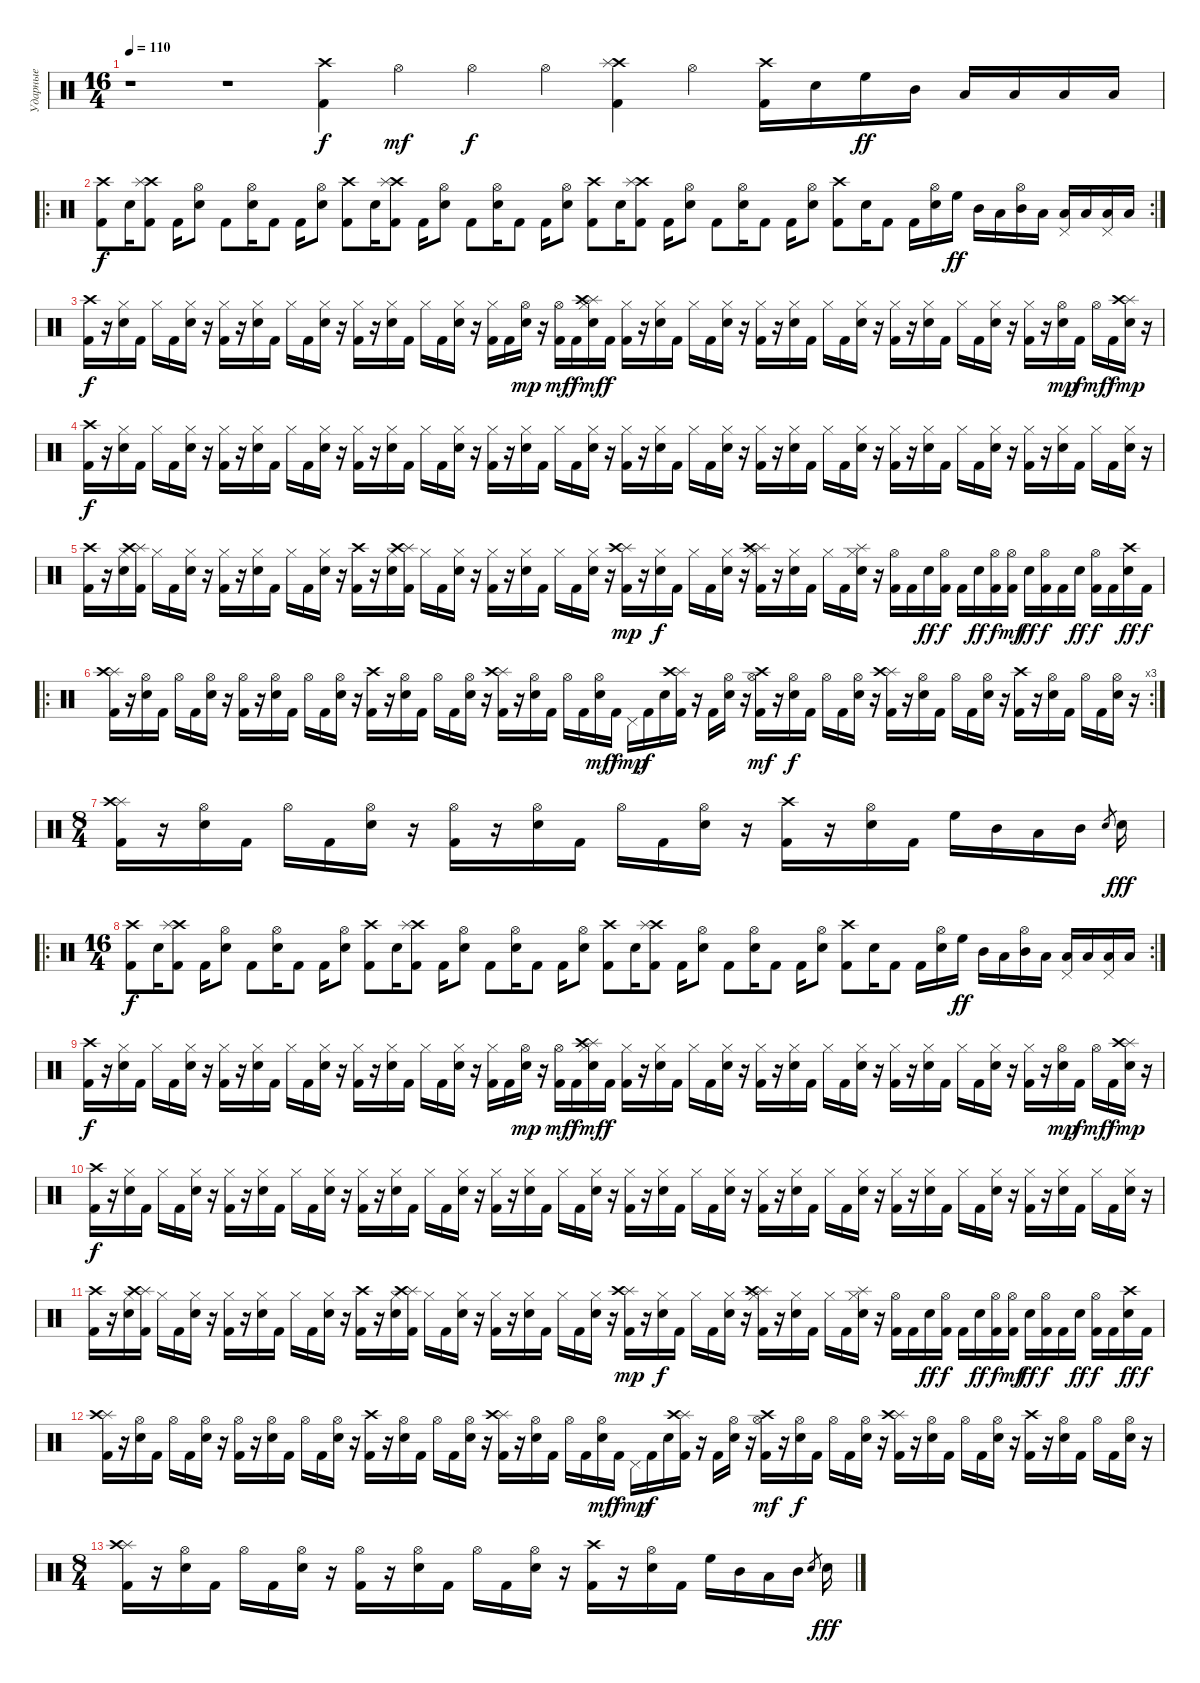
\track ("Ударные" "Ударные") {instrument percussion}
\staff {score}
\articulation defaults
\ts (16 4)
\tempo 110
\clef neutral
\ks c
r.1{dy f} r.1 ("Crash high (hit)" "Kick (hit) 2").4 "Hi-Hat (open)".4{dy mf} "Hi-Hat (open)".4{dy f} "Hi-Hat (open)".4 ("Crash high (hit)" "Splash (hit)" "Kick (hit) 2").4 "Hi-Hat (open)".4 ("Crash high (hit)" "Kick (hit) 2").16 "Electric Snare (hit)".16 "High Floor Tom (hit)".16{dy ff} "Mid Tom (hit)".16 "Low Tom (hit)".16 "Low Floor Tom (hit)".16 "Low Tom (hit)".16 "Low Floor Tom (hit)".16 |
\ro
\rc 2
("Crash high (hit)" "Kick (hit) 2").8{dy f} "Snare (hit) 2".16 ("Crash high (hit)" "Splash (hit)" "Kick (hit) 2").8 "Kick (hit) 2".16 ("Hi-Hat (open)" "Snare (hit) 2").8 "Kick (hit) 2".8 ("Hi-Hat (open)" "Snare (hit) 2").16 "Kick (hit) 2".8 "Kick (hit) 2".16 ("Hi-Hat (open)" "Snare (hit) 2").8 ("Crash high (hit)" "Kick (hit) 2").8 "Snare (hit) 2".16 ("Crash high (hit)" "Splash (hit)" "Kick (hit) 2").8 "Kick (hit) 2".16 ("Hi-Hat (open)" "Snare (hit) 2").8 "Kick (hit) 2".8 ("Hi-Hat (open)" "Snare (hit) 2").16 "Kick (hit) 2".8 "Kick (hit) 2".16 ("Hi-Hat (open)" "Snare (hit) 2").8 ("Crash high (hit)" "Kick (hit) 2").8 "Snare (hit) 2".16 ("Crash high (hit)" "Splash (hit)" "Kick (hit) 2").8 "Kick (hit) 2".16 ("Hi-Hat (open)" "Snare (hit) 2").8 "Kick (hit) 2".8 ("Hi-Hat (open)" "Snare (hit) 2").16 "Kick (hit) 2".8 "Kick (hit) 2".16 ("Hi-Hat (open)" "Snare (hit) 2").8 ("Crash high (hit)" "Kick (hit) 2").8 "Snare (hit) 2".16 "Kick (hit) 2".8 "Kick (hit) 2".16 ("Hi-Hat (open)" "Snare (hit) 2").16 "High Floor Tom (hit)".16{dy ff} "Mid Tom (hit)".16 "Low Tom (hit)".16 ("Hi-Hat (open)" "Mid Tom (hit)").16 "Low Floor Tom (hit)".16 ("Pedal Hi-Hat (hit)" "Low Tom (hit)").16 "Low Floor Tom (hit)".16 ("Pedal Hi-Hat (hit)" "Low Tom (hit)").16 "Low Floor Tom (hit)".16 |
("Crash high (hit)" "Kick (hit) 2").16{dy f} r.16 ("Hi-Hat (closed)" "Snare (hit) 2").16 "Kick (hit) 2".16 "Hi-Hat (closed)".16 "Kick (hit) 2".16 ("Hi-Hat (closed)" "Snare (hit) 2").16 r.16 ("Hi-Hat (closed)" "Kick (hit) 2").16 r.16 ("Hi-Hat (closed)" "Snare (hit) 2").16 "Kick (hit) 2".16 "Hi-Hat (closed)".16 "Kick (hit) 2".16 ("Hi-Hat (closed)" "Snare (hit) 2").16 r.16 ("Hi-Hat (closed)" "Kick (hit) 2").16 r.16 ("Hi-Hat (closed)" "Snare (hit) 2").16 "Kick (hit) 2".16 "Hi-Hat (closed)".16 "Kick (hit) 2".16 ("Hi-Hat (closed)" "Snare (hit) 2").16 r.16 ("Hi-Hat (closed)" "Kick (hit) 2").16 "Kick (hit) 2".16 ("Hi-Hat (open)" "Snare (hit) 2").16{dy mp} r.16 ("Hi-Hat (open)" "Kick (hit) 2").16{dy mf} "Kick (hit) 2".16{dy f} ("Splash (hit)" "Crash high (hit)" "Hi-Hat (closed)" "Snare (hit) 2").16{dy mf} "Kick (hit) 2".16{dy f} ("Hi-Hat (closed)" "Kick (hit) 2").16 r.16 ("Hi-Hat (closed)" "Snare (hit) 2").16 "Kick (hit) 2".16 "Hi-Hat (closed)".16 "Kick (hit) 2".16 ("Hi-Hat (closed)" "Snare (hit) 2").16 r.16 ("Hi-Hat (closed)" "Kick (hit) 2").16 r.16 ("Hi-Hat (closed)" "Snare (hit) 2").16 "Kick (hit) 2".16 "Hi-Hat (closed)".16 "Kick (hit) 2".16 ("Hi-Hat (closed)" "Snare (hit) 2").16 r.16 ("Hi-Hat (closed)" "Kick (hit) 2").16 r.16 ("Hi-Hat (closed)" "Snare (hit) 2").16 "Kick (hit) 2".16 "Hi-Hat (closed)".16 "Kick (hit) 2".16 ("Hi-Hat (closed)" "Snare (hit) 2").16 r.16 ("Hi-Hat (closed)" "Kick (hit) 2").16 r.16 ("Hi-Hat (open)" "Snare (hit) 2").16{dy mp} "Kick (hit) 2".16{dy f} "Hi-Hat (open)".16{dy mf} "Kick (hit) 2".16{dy f} ("Splash (hit)" "Crash high (hit)" "Snare (hit) 2").16{dy mp} r.16 |
("Crash high (hit)" "Kick (hit) 2").16{dy f} r.16 ("Hi-Hat (closed)" "Snare (hit) 2").16 "Kick (hit) 2".16 "Hi-Hat (closed)".16 "Kick (hit) 2".16 ("Hi-Hat (closed)" "Snare (hit) 2").16 r.16 ("Hi-Hat (closed)" "Kick (hit) 2").16 r.16 ("Hi-Hat (closed)" "Snare (hit) 2").16 "Kick (hit) 2".16 "Hi-Hat (closed)".16 "Kick (hit) 2".16 ("Hi-Hat (closed)" "Snare (hit) 2").16 r.16 ("Hi-Hat (closed)" "Kick (hit) 2").16 r.16 ("Hi-Hat (closed)" "Snare (hit) 2").16 "Kick (hit) 2".16 "Hi-Hat (closed)".16 "Kick (hit) 2".16 ("Hi-Hat (closed)" "Snare (hit) 2").16 r.16 ("Hi-Hat (closed)" "Kick (hit) 2").16 r.16 ("Hi-Hat (closed)" "Snare (hit) 2").16 "Kick (hit) 2".16 "Hi-Hat (closed)".16 "Kick (hit) 2".16 ("Hi-Hat (closed)" "Snare (hit) 2").16 r.16 ("Hi-Hat (closed)" "Kick (hit) 2").16 r.16 ("Hi-Hat (closed)" "Snare (hit) 2").16 "Kick (hit) 2".16 "Hi-Hat (closed)".16 "Kick (hit) 2".16 ("Hi-Hat (closed)" "Snare (hit) 2").16 r.16 ("Hi-Hat (closed)" "Kick (hit) 2").16 r.16 ("Hi-Hat (closed)" "Snare (hit) 2").16 "Kick (hit) 2".16 "Hi-Hat (closed)".16 "Kick (hit) 2".16 ("Hi-Hat (closed)" "Snare (hit) 2").16 r.16 ("Hi-Hat (closed)" "Kick (hit) 2").16 r.16 ("Hi-Hat (closed)" "Snare (hit) 2").16 "Kick (hit) 2".16 "Hi-Hat (closed)".16 "Kick (hit) 2".16 ("Hi-Hat (closed)" "Snare (hit) 2").16 r.16 ("Hi-Hat (closed)" "Kick (hit) 2").16 r.16 ("Hi-Hat (closed)" "Snare (hit) 2").16 "Kick (hit) 2".16 "Hi-Hat (closed)".16 "Kick (hit) 2".16 ("Hi-Hat (closed)" "Snare (hit) 2").16 r.16 |
("Crash high (hit)" "Kick (hit) 2").16 r.16 ("Hi-Hat (closed)" "Snare (hit) 2").16 ("Splash (hit)" "Crash high (hit)" "Kick (hit) 2").16 "Hi-Hat (closed)".16 "Kick (hit) 2".16 ("Hi-Hat (closed)" "Snare (hit) 2").16 r.16 ("Hi-Hat (closed)" "Kick (hit) 2").16 r.16 ("Hi-Hat (closed)" "Snare (hit) 2").16 "Kick (hit) 2".16 "Hi-Hat (closed)".16 "Kick (hit) 2".16 ("Hi-Hat (closed)" "Snare (hit) 2").16 r.16 ("Crash high (hit)" "Kick (hit) 2").16 r.16 ("Hi-Hat (closed)" "Snare (hit) 2").16 ("Splash (hit)" "Crash high (hit)" "Kick (hit) 2").16 "Hi-Hat (closed)".16 "Kick (hit) 2".16 ("Hi-Hat (closed)" "Snare (hit) 2").16 r.16 ("Hi-Hat (closed)" "Kick (hit) 2").16 r.16 ("Hi-Hat (closed)" "Snare (hit) 2").16 "Kick (hit) 2".16 "Hi-Hat (closed)".16 "Kick (hit) 2".16 ("Hi-Hat (closed)" "Snare (hit) 2").16 r.16 ("Splash (hit)" "Crash high (hit)" "Kick (hit) 2").16{dy mp} r.16 ("Hi-Hat (closed)" "Snare (hit) 2").16{dy f} "Kick (hit) 2".16 "Hi-Hat (closed)".16 "Kick (hit) 2".16 ("Hi-Hat (closed)" "Snare (hit) 2").16 r.16 ("Splash (hit)" "Crash high (hit)" "Hi-Hat (closed)" "Kick (hit) 2").16 r.16 ("Hi-Hat (closed)" "Snare (hit) 2").16 "Kick (hit) 2".16 "Hi-Hat (closed)".16 "Kick (hit) 2".16 ("Splash (hit)" "Hi-Hat (closed)" "Snare (hit) 2").16 r.16 ("Hi-Hat (open)" "Kick (hit) 2").16 "Kick (hit) 2".16 "Snare (hit) 2".16{dy ff} ("Hi-Hat (open)" "Kick (hit) 2").16{dy f} "Kick (hit) 2".16 "Snare (hit) 2".16{dy ff} ("Hi-Hat (open)" "Kick (hit) 2").16{dy f} ("Hi-Hat (open)" "Kick (hit) 2").16{dy mf} "Snare (hit) 2".16{dy ff} ("Hi-Hat (open)" "Kick (hit) 2").16{dy f} "Kick (hit) 2".16 "Snare (hit) 2".16{dy ff} ("Hi-Hat (open)" "Kick (hit) 2").16{dy f} "Kick (hit) 2".16 ("Crash high (hit)" "Snare (hit) 2").16{dy ff} "Kick (hit) 2".16{dy f} |
\ro
\rc 3
("Splash (hit)" "Crash high (hit)" "Kick (hit) 2").16 r.16 ("Hi-Hat (open)" "Snare (hit) 2").16 "Kick (hit) 2".16 "Hi-Hat (open)".16 "Kick (hit) 2".16 ("Hi-Hat (open)" "Snare (hit) 2").16 r.16 ("Hi-Hat (open)" "Kick (hit) 2").16 r.16 ("Hi-Hat (open)" "Snare (hit) 2").16 "Kick (hit) 2".16 "Hi-Hat (open)".16 "Kick (hit) 2".16 ("Hi-Hat (open)" "Snare (hit) 2").16 r.16 ("Crash high (hit)" "Kick (hit) 2").16 r.16 ("Hi-Hat (open)" "Snare (hit) 2").16 "Kick (hit) 2".16 "Hi-Hat (open)".16 "Kick (hit) 2".16 ("Hi-Hat (open)" "Snare (hit) 2").16 r.16 ("Splash (hit)" "Crash high (hit)" "Kick (hit) 2").16 r.16 ("Hi-Hat (open)" "Snare (hit) 2").16 "Kick (hit) 2".16 "Hi-Hat (open)".16 "Kick (hit) 2".16 ("Hi-Hat (open)" "Snare (hit) 2").16{dy mf} "Kick (hit) 2".16{dy f} "Pedal Hi-Hat (hit)".16{dy mp} "Kick (hit) 2".16{dy f} "Snare (hit) 2".16 ("Splash (hit)" "Crash high (hit)" "Kick (hit) 2").16 r.16 "Kick (hit) 2".16 ("Hi-Hat (open)" "Snare (hit) 2").16 r.16 ("Crash high (hit)" "Hi-Hat (open)" "Kick (hit) 2").16{dy mf} r.16 ("Hi-Hat (open)" "Snare (hit) 2").16{dy f} "Kick (hit) 2".16 "Hi-Hat (open)".16 "Kick (hit) 2".16 ("Hi-Hat (open)" "Snare (hit) 2").16 r.16 ("Splash (hit)" "Crash high (hit)" "Kick (hit) 2").16 r.16 ("Hi-Hat (open)" "Snare (hit) 2").16 "Kick (hit) 2".16 "Hi-Hat (open)".16 "Kick (hit) 2".16 ("Hi-Hat (open)" "Snare (hit) 2").16 r.16 ("Crash high (hit)" "Kick (hit) 2").16 r.16 ("Hi-Hat (open)" "Snare (hit) 2").16 "Kick (hit) 2".16 "Hi-Hat (open)".16 "Kick (hit) 2".16 ("Hi-Hat (open)" "Snare (hit) 2").16 r.16 |
\ts (8 4)
("Splash (hit)" "Crash high (hit)" "Kick (hit) 2").16 r.16 ("Hi-Hat (open)" "Snare (hit) 2").16 "Kick (hit) 2".16 "Hi-Hat (open)".16 "Kick (hit) 2".16 ("Hi-Hat (open)" "Snare (hit) 2").16 r.16 ("Hi-Hat (open)" "Kick (hit) 2").16 r.16 ("Hi-Hat (open)" "Snare (hit) 2").16 "Kick (hit) 2".16 "Hi-Hat (open)".16 "Kick (hit) 2".16 ("Hi-Hat (open)" "Snare (hit) 2").16 r.16 ("Crash high (hit)" "Kick (hit) 2").16 r.16 ("Hi-Hat (open)" "Snare (hit) 2").16 "Kick (hit) 2".16 "High Floor Tom (hit)".16 "Mid Tom (hit)".16 "Low Tom (hit)".16 "Mid Tom (hit)".16 "Snare (hit) 2".8{gr} "Snare (hit) 2".16{dy fff} |
\ro
\rc 2
\ts (16 4)
("Crash high (hit)" "Kick (hit) 2").8{dy f} "Snare (hit) 2".16 ("Crash high (hit)" "Splash (hit)" "Kick (hit) 2").8 "Kick (hit) 2".16 ("Hi-Hat (open)" "Snare (hit) 2").8 "Kick (hit) 2".8 ("Hi-Hat (open)" "Snare (hit) 2").16 "Kick (hit) 2".8 "Kick (hit) 2".16 ("Hi-Hat (open)" "Snare (hit) 2").8 ("Crash high (hit)" "Kick (hit) 2").8 "Snare (hit) 2".16 ("Crash high (hit)" "Splash (hit)" "Kick (hit) 2").8 "Kick (hit) 2".16 ("Hi-Hat (open)" "Snare (hit) 2").8 "Kick (hit) 2".8 ("Hi-Hat (open)" "Snare (hit) 2").16 "Kick (hit) 2".8 "Kick (hit) 2".16 ("Hi-Hat (open)" "Snare (hit) 2").8 ("Crash high (hit)" "Kick (hit) 2").8 "Snare (hit) 2".16 ("Crash high (hit)" "Splash (hit)" "Kick (hit) 2").8 "Kick (hit) 2".16 ("Hi-Hat (open)" "Snare (hit) 2").8 "Kick (hit) 2".8 ("Hi-Hat (open)" "Snare (hit) 2").16 "Kick (hit) 2".8 "Kick (hit) 2".16 ("Hi-Hat (open)" "Snare (hit) 2").8 ("Crash high (hit)" "Kick (hit) 2").8 "Snare (hit) 2".16 "Kick (hit) 2".8 "Kick (hit) 2".16 ("Hi-Hat (open)" "Snare (hit) 2").16 "High Floor Tom (hit)".16{dy ff} "Mid Tom (hit)".16 "Low Tom (hit)".16 ("Hi-Hat (open)" "Mid Tom (hit)").16 "Low Floor Tom (hit)".16 ("Pedal Hi-Hat (hit)" "Low Tom (hit)").16 "Low Floor Tom (hit)".16 ("Pedal Hi-Hat (hit)" "Low Tom (hit)").16 "Low Floor Tom (hit)".16 |
("Crash high (hit)" "Kick (hit) 2").16{dy f} r.16 ("Hi-Hat (closed)" "Snare (hit) 2").16 "Kick (hit) 2".16 "Hi-Hat (closed)".16 "Kick (hit) 2".16 ("Hi-Hat (closed)" "Snare (hit) 2").16 r.16 ("Hi-Hat (closed)" "Kick (hit) 2").16 r.16 ("Hi-Hat (closed)" "Snare (hit) 2").16 "Kick (hit) 2".16 "Hi-Hat (closed)".16 "Kick (hit) 2".16 ("Hi-Hat (closed)" "Snare (hit) 2").16 r.16 ("Hi-Hat (closed)" "Kick (hit) 2").16 r.16 ("Hi-Hat (closed)" "Snare (hit) 2").16 "Kick (hit) 2".16 "Hi-Hat (closed)".16 "Kick (hit) 2".16 ("Hi-Hat (closed)" "Snare (hit) 2").16 r.16 ("Hi-Hat (closed)" "Kick (hit) 2").16 "Kick (hit) 2".16 ("Hi-Hat (open)" "Snare (hit) 2").16{dy mp} r.16 ("Hi-Hat (open)" "Kick (hit) 2").16{dy mf} "Kick (hit) 2".16{dy f} ("Splash (hit)" "Crash high (hit)" "Hi-Hat (closed)" "Snare (hit) 2").16{dy mf} "Kick (hit) 2".16{dy f} ("Hi-Hat (closed)" "Kick (hit) 2").16 r.16 ("Hi-Hat (closed)" "Snare (hit) 2").16 "Kick (hit) 2".16 "Hi-Hat (closed)".16 "Kick (hit) 2".16 ("Hi-Hat (closed)" "Snare (hit) 2").16 r.16 ("Hi-Hat (closed)" "Kick (hit) 2").16 r.16 ("Hi-Hat (closed)" "Snare (hit) 2").16 "Kick (hit) 2".16 "Hi-Hat (closed)".16 "Kick (hit) 2".16 ("Hi-Hat (closed)" "Snare (hit) 2").16 r.16 ("Hi-Hat (closed)" "Kick (hit) 2").16 r.16 ("Hi-Hat (closed)" "Snare (hit) 2").16 "Kick (hit) 2".16 "Hi-Hat (closed)".16 "Kick (hit) 2".16 ("Hi-Hat (closed)" "Snare (hit) 2").16 r.16 ("Hi-Hat (closed)" "Kick (hit) 2").16 r.16 ("Hi-Hat (open)" "Snare (hit) 2").16{dy mp} "Kick (hit) 2".16{dy f} "Hi-Hat (open)".16{dy mf} "Kick (hit) 2".16{dy f} ("Splash (hit)" "Crash high (hit)" "Snare (hit) 2").16{dy mp} r.16 |
("Crash high (hit)" "Kick (hit) 2").16{dy f} r.16 ("Hi-Hat (closed)" "Snare (hit) 2").16 "Kick (hit) 2".16 "Hi-Hat (closed)".16 "Kick (hit) 2".16 ("Hi-Hat (closed)" "Snare (hit) 2").16 r.16 ("Hi-Hat (closed)" "Kick (hit) 2").16 r.16 ("Hi-Hat (closed)" "Snare (hit) 2").16 "Kick (hit) 2".16 "Hi-Hat (closed)".16 "Kick (hit) 2".16 ("Hi-Hat (closed)" "Snare (hit) 2").16 r.16 ("Hi-Hat (closed)" "Kick (hit) 2").16 r.16 ("Hi-Hat (closed)" "Snare (hit) 2").16 "Kick (hit) 2".16 "Hi-Hat (closed)".16 "Kick (hit) 2".16 ("Hi-Hat (closed)" "Snare (hit) 2").16 r.16 ("Hi-Hat (closed)" "Kick (hit) 2").16 r.16 ("Hi-Hat (closed)" "Snare (hit) 2").16 "Kick (hit) 2".16 "Hi-Hat (closed)".16 "Kick (hit) 2".16 ("Hi-Hat (closed)" "Snare (hit) 2").16 r.16 ("Hi-Hat (closed)" "Kick (hit) 2").16 r.16 ("Hi-Hat (closed)" "Snare (hit) 2").16 "Kick (hit) 2".16 "Hi-Hat (closed)".16 "Kick (hit) 2".16 ("Hi-Hat (closed)" "Snare (hit) 2").16 r.16 ("Hi-Hat (closed)" "Kick (hit) 2").16 r.16 ("Hi-Hat (closed)" "Snare (hit) 2").16 "Kick (hit) 2".16 "Hi-Hat (closed)".16 "Kick (hit) 2".16 ("Hi-Hat (closed)" "Snare (hit) 2").16 r.16 ("Hi-Hat (closed)" "Kick (hit) 2").16 r.16 ("Hi-Hat (closed)" "Snare (hit) 2").16 "Kick (hit) 2".16 "Hi-Hat (closed)".16 "Kick (hit) 2".16 ("Hi-Hat (closed)" "Snare (hit) 2").16 r.16 ("Hi-Hat (closed)" "Kick (hit) 2").16 r.16 ("Hi-Hat (closed)" "Snare (hit) 2").16 "Kick (hit) 2".16 "Hi-Hat (closed)".16 "Kick (hit) 2".16 ("Hi-Hat (closed)" "Snare (hit) 2").16 r.16 |
("Crash high (hit)" "Kick (hit) 2").16 r.16 ("Hi-Hat (closed)" "Snare (hit) 2").16 ("Splash (hit)" "Crash high (hit)" "Kick (hit) 2").16 "Hi-Hat (closed)".16 "Kick (hit) 2".16 ("Hi-Hat (closed)" "Snare (hit) 2").16 r.16 ("Hi-Hat (closed)" "Kick (hit) 2").16 r.16 ("Hi-Hat (closed)" "Snare (hit) 2").16 "Kick (hit) 2".16 "Hi-Hat (closed)".16 "Kick (hit) 2".16 ("Hi-Hat (closed)" "Snare (hit) 2").16 r.16 ("Crash high (hit)" "Kick (hit) 2").16 r.16 ("Hi-Hat (closed)" "Snare (hit) 2").16 ("Splash (hit)" "Crash high (hit)" "Kick (hit) 2").16 "Hi-Hat (closed)".16 "Kick (hit) 2".16 ("Hi-Hat (closed)" "Snare (hit) 2").16 r.16 ("Hi-Hat (closed)" "Kick (hit) 2").16 r.16 ("Hi-Hat (closed)" "Snare (hit) 2").16 "Kick (hit) 2".16 "Hi-Hat (closed)".16 "Kick (hit) 2".16 ("Hi-Hat (closed)" "Snare (hit) 2").16 r.16 ("Splash (hit)" "Crash high (hit)" "Kick (hit) 2").16{dy mp} r.16 ("Hi-Hat (closed)" "Snare (hit) 2").16{dy f} "Kick (hit) 2".16 "Hi-Hat (closed)".16 "Kick (hit) 2".16 ("Hi-Hat (closed)" "Snare (hit) 2").16 r.16 ("Splash (hit)" "Crash high (hit)" "Hi-Hat (closed)" "Kick (hit) 2").16 r.16 ("Hi-Hat (closed)" "Snare (hit) 2").16 "Kick (hit) 2".16 "Hi-Hat (closed)".16 "Kick (hit) 2".16 ("Splash (hit)" "Hi-Hat (closed)" "Snare (hit) 2").16 r.16 ("Hi-Hat (open)" "Kick (hit) 2").16 "Kick (hit) 2".16 "Snare (hit) 2".16{dy ff} ("Hi-Hat (open)" "Kick (hit) 2").16{dy f} "Kick (hit) 2".16 "Snare (hit) 2".16{dy ff} ("Hi-Hat (open)" "Kick (hit) 2").16{dy f} ("Hi-Hat (open)" "Kick (hit) 2").16{dy mf} "Snare (hit) 2".16{dy ff} ("Hi-Hat (open)" "Kick (hit) 2").16{dy f} "Kick (hit) 2".16 "Snare (hit) 2".16{dy ff} ("Hi-Hat (open)" "Kick (hit) 2").16{dy f} "Kick (hit) 2".16 ("Crash high (hit)" "Snare (hit) 2").16{dy ff} "Kick (hit) 2".16{dy f} |
("Splash (hit)" "Crash high (hit)" "Kick (hit) 2").16 r.16 ("Hi-Hat (open)" "Snare (hit) 2").16 "Kick (hit) 2".16 "Hi-Hat (open)".16 "Kick (hit) 2".16 ("Hi-Hat (open)" "Snare (hit) 2").16 r.16 ("Hi-Hat (open)" "Kick (hit) 2").16 r.16 ("Hi-Hat (open)" "Snare (hit) 2").16 "Kick (hit) 2".16 "Hi-Hat (open)".16 "Kick (hit) 2".16 ("Hi-Hat (open)" "Snare (hit) 2").16 r.16 ("Crash high (hit)" "Kick (hit) 2").16 r.16 ("Hi-Hat (open)" "Snare (hit) 2").16 "Kick (hit) 2".16 "Hi-Hat (open)".16 "Kick (hit) 2".16 ("Hi-Hat (open)" "Snare (hit) 2").16 r.16 ("Splash (hit)" "Crash high (hit)" "Kick (hit) 2").16 r.16 ("Hi-Hat (open)" "Snare (hit) 2").16 "Kick (hit) 2".16 "Hi-Hat (open)".16 "Kick (hit) 2".16 ("Hi-Hat (open)" "Snare (hit) 2").16{dy mf} "Kick (hit) 2".16{dy f} "Pedal Hi-Hat (hit)".16{dy mp} "Kick (hit) 2".16{dy f} "Snare (hit) 2".16 ("Splash (hit)" "Crash high (hit)" "Kick (hit) 2").16 r.16 "Kick (hit) 2".16 ("Hi-Hat (open)" "Snare (hit) 2").16 r.16 ("Crash high (hit)" "Hi-Hat (open)" "Kick (hit) 2").16{dy mf} r.16 ("Hi-Hat (open)" "Snare (hit) 2").16{dy f} "Kick (hit) 2".16 "Hi-Hat (open)".16 "Kick (hit) 2".16 ("Hi-Hat (open)" "Snare (hit) 2").16 r.16 ("Splash (hit)" "Crash high (hit)" "Kick (hit) 2").16 r.16 ("Hi-Hat (open)" "Snare (hit) 2").16 "Kick (hit) 2".16 "Hi-Hat (open)".16 "Kick (hit) 2".16 ("Hi-Hat (open)" "Snare (hit) 2").16 r.16 ("Crash high (hit)" "Kick (hit) 2").16 r.16 ("Hi-Hat (open)" "Snare (hit) 2").16 "Kick (hit) 2".16 "Hi-Hat (open)".16 "Kick (hit) 2".16 ("Hi-Hat (open)" "Snare (hit) 2").16 r.16 |
\ts (8 4)
("Splash (hit)" "Crash high (hit)" "Kick (hit) 2").16 r.16 ("Hi-Hat (open)" "Snare (hit) 2").16 "Kick (hit) 2".16 "Hi-Hat (open)".16 "Kick (hit) 2".16 ("Hi-Hat (open)" "Snare (hit) 2").16 r.16 ("Hi-Hat (open)" "Kick (hit) 2").16 r.16 ("Hi-Hat (open)" "Snare (hit) 2").16 "Kick (hit) 2".16 "Hi-Hat (open)".16 "Kick (hit) 2".16 ("Hi-Hat (open)" "Snare (hit) 2").16 r.16 ("Crash high (hit)" "Kick (hit) 2").16 r.16 ("Hi-Hat (open)" "Snare (hit) 2").16 "Kick (hit) 2".16 "High Floor Tom (hit)".16 "Mid Tom (hit)".16 "Low Tom (hit)".16 "Mid Tom (hit)".16 "Snare (hit) 2".8{gr} "Snare (hit) 2".16{dy fff}
